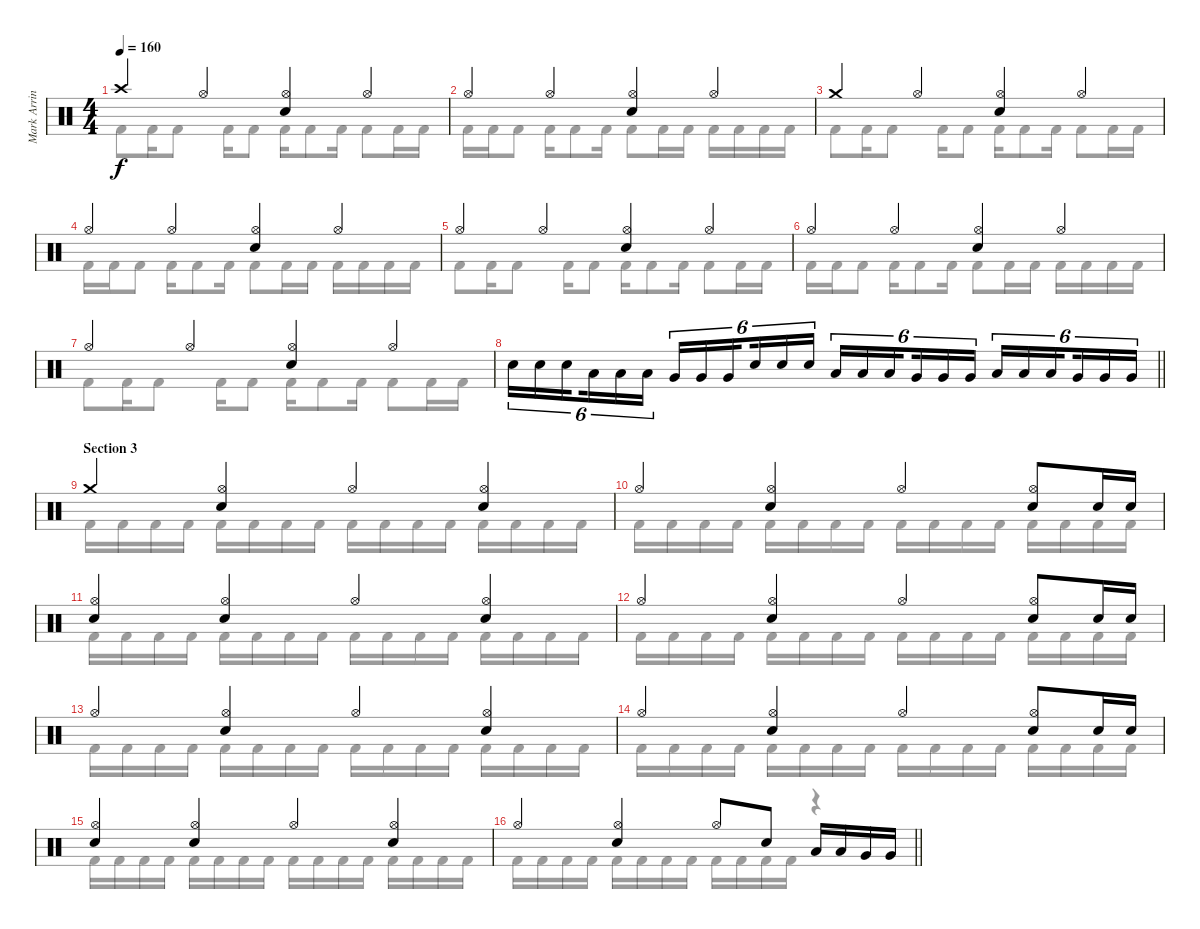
\track ("Mark Arrington – drums" "Mark Arrin") {instrument percussion}
\staff {score}
\articulation defaults
\voice
\ts (4 4)
\tempo 160
\clef neutral
\ks c "Crash high (hit)".4{dy f} "Hi-Hat (open)".4
("Hi-Hat (open)" "Electric Snare (hit)").4 "Hi-Hat (open)".4 |
"Hi-Hat (open)".4 "Hi-Hat (open)".4 ("Hi-Hat (open)" "Electric Snare (hit)").4 "Hi-Hat (open)".4 |
"Crash medium (hit)".4 "Hi-Hat (open)".4 ("Hi-Hat (open)" "Electric Snare (hit)").4 "Hi-Hat (open)".4 |
"Hi-Hat (open)".4 "Hi-Hat (open)".4 ("Hi-Hat (open)" "Electric Snare (hit)").4 "Hi-Hat (open)".4 |
"Hi-Hat (open)".4 "Hi-Hat (open)".4 ("Hi-Hat (open)" "Electric Snare (hit)").4 "Hi-Hat (open)".4 |
"Hi-Hat (open)".4 "Hi-Hat (open)".4 ("Hi-Hat (open)" "Electric Snare (hit)").4 "Hi-Hat (open)".4 |
"Hi-Hat (open)".4 "Hi-Hat (open)".4 ("Hi-Hat (open)" "Electric Snare (hit)").4 "Hi-Hat (open)".4 |
\barLineRight lightlight "Electric Snare (hit)".16{tu (6 4)} "Electric Snare (hit)".16{tu (6 4)} "Electric Snare (hit)".16{tu (6 4) beam splitsecondary} "Low Tom (hit)".16{tu (6 4)} "Low Tom (hit)".16{tu (6 4)} "Low Tom (hit)".16{tu (6 4)} "Very Low Tom (hit)".16{tu (6 4)} "Very Low Tom (hit)".16{tu (6 4)} "Very Low Tom (hit)".16{tu (6 4) beam splitsecondary} "Electric Snare (hit)".16{tu (6 4)} "Electric Snare (hit)".16{tu (6 4)} "Electric Snare (hit)".16{tu (6 4)} "Low Tom (hit)".16{tu (6 4)} "Low Tom (hit)".16{tu (6 4)} "Low Tom (hit)".16{tu (6 4) beam splitsecondary} "Very Low Tom (hit)".16{tu (6 4)} "Very Low Tom (hit)".16{tu (6 4)} "Very Low Tom (hit)".16{tu (6 4)} "Low Floor Tom (hit)".16{tu (6 4)} "Low Floor Tom (hit)".16{tu (6 4)} "Low Floor Tom (hit)".16{tu (6 4) beam splitsecondary} "Very Low Tom (hit)".16{tu (6 4)} "Very Low Tom (hit)".16{tu (6 4)} "Very Low Tom (hit)".16{tu (6 4)}
|
\section ("" "Section 3")
"Crash medium (hit)".4 ("Hi-Hat (open)" "Electric Snare (hit)").4 "Hi-Hat (open)".4 ("Hi-Hat (open)" "Electric Snare (hit)").4 |
"Hi-Hat (open)".4 ("Hi-Hat (open)" "Electric Snare (hit)").4 "Hi-Hat (open)".4 ("Hi-Hat (open)" "Electric Snare (hit)").8 "Electric Snare (hit)".16 "Electric Snare (hit)".16 |
("Hi-Hat (open)" "Electric Snare (hit)").4 ("Hi-Hat (open)" "Electric Snare (hit)").4 "Hi-Hat (open)".4 ("Hi-Hat (open)" "Electric Snare (hit)").4 |
"Hi-Hat (open)".4 ("Hi-Hat (open)" "Electric Snare (hit)").4 "Hi-Hat (open)".4 ("Hi-Hat (open)" "Electric Snare (hit)").8 "Electric Snare (hit)".16 "Electric Snare (hit)".16 |
"Hi-Hat (open)".4 ("Hi-Hat (open)" "Electric Snare (hit)").4 "Hi-Hat (open)".4 ("Hi-Hat (open)" "Electric Snare (hit)").4 |
"Hi-Hat (open)".4 ("Hi-Hat (open)" "Electric Snare (hit)").4 "Hi-Hat (open)".4 ("Hi-Hat (open)" "Electric Snare (hit)").8 "Electric Snare (hit)".16 "Electric Snare (hit)".16 |
("Hi-Hat (open)" "Electric Snare (hit)").4 ("Hi-Hat (open)" "Electric Snare (hit)").4 "Hi-Hat (open)".4 ("Hi-Hat (open)" "Electric Snare (hit)").4 |
\barLineRight lightlight "Hi-Hat (open)".4
("Hi-Hat (open)" "Electric Snare (hit)").4 "Hi-Hat (open)".8 "Electric Snare (hit)".8 "Low Tom (hit)".16 "Low Tom (hit)".16 "Very Low Tom (hit)".16 "Very Low Tom (hit)".16
\voice
\clef neutral
\ottava regular
\simile none
\ks c "Kick (hit) 2".8{dy f} "Kick (hit) 2".16 "Kick (hit) 2".8 "Kick (hit) 2".16 "Kick (hit) 2".8 "Kick (hit) 2".16 "Kick (hit) 2".8 "Kick (hit) 2".16 "Kick (hit) 2".8 "Kick (hit) 2".16 "Kick (hit) 2".16
|
"Kick (hit) 2".16 "Kick (hit) 2".16 "Kick (hit) 2".8 "Kick (hit) 2".16 "Kick (hit) 2".8 "Kick (hit) 2".16 "Kick (hit) 2".8 "Kick (hit) 2".16 "Kick (hit) 2".16 "Kick (hit) 2".16 "Kick (hit) 2".16 "Kick (hit) 2".16 "Kick (hit) 2".16 |
"Kick (hit) 2".8 "Kick (hit) 2".16 "Kick (hit) 2".8 "Kick (hit) 2".16 "Kick (hit) 2".8 "Kick (hit) 2".16 "Kick (hit) 2".8 "Kick (hit) 2".16 "Kick (hit) 2".8 "Kick (hit) 2".16 "Kick (hit) 2".16 |
"Kick (hit) 2".16 "Kick (hit) 2".16 "Kick (hit) 2".8 "Kick (hit) 2".16 "Kick (hit) 2".8 "Kick (hit) 2".16 "Kick (hit) 2".8 "Kick (hit) 2".16 "Kick (hit) 2".16 "Kick (hit) 2".16 "Kick (hit) 2".16 "Kick (hit) 2".16 "Kick (hit) 2".16 |
"Kick (hit) 2".8 "Kick (hit) 2".16 "Kick (hit) 2".8 "Kick (hit) 2".16 "Kick (hit) 2".8 "Kick (hit) 2".16 "Kick (hit) 2".8 "Kick (hit) 2".16 "Kick (hit) 2".8 "Kick (hit) 2".16 "Kick (hit) 2".16 |
"Kick (hit) 2".16 "Kick (hit) 2".16 "Kick (hit) 2".8 "Kick (hit) 2".16 "Kick (hit) 2".8 "Kick (hit) 2".16 "Kick (hit) 2".8 "Kick (hit) 2".16 "Kick (hit) 2".16 "Kick (hit) 2".16 "Kick (hit) 2".16 "Kick (hit) 2".16 "Kick (hit) 2".16 |
"Kick (hit) 2".8 "Kick (hit) 2".16 "Kick (hit) 2".8 "Kick (hit) 2".16 "Kick (hit) 2".8 "Kick (hit) 2".16 "Kick (hit) 2".8 "Kick (hit) 2".16 "Kick (hit) 2".8 "Kick (hit) 2".16 "Kick (hit) 2".16 |
\barLineRight lightlight
|
"Kick (hit) 2".16 "Kick (hit) 2".16 "Kick (hit) 2".16 "Kick (hit) 2".16 "Kick (hit) 2".16 "Kick (hit) 2".16 "Kick (hit) 2".16 "Kick (hit) 2".16 "Kick (hit) 2".16 "Kick (hit) 2".16 "Kick (hit) 2".16 "Kick (hit) 2".16 "Kick (hit) 2".16 "Kick (hit) 2".16 "Kick (hit) 2".16 "Kick (hit) 2".16 |
"Kick (hit) 2".16 "Kick (hit) 2".16 "Kick (hit) 2".16 "Kick (hit) 2".16 "Kick (hit) 2".16 "Kick (hit) 2".16 "Kick (hit) 2".16 "Kick (hit) 2".16 "Kick (hit) 2".16 "Kick (hit) 2".16 "Kick (hit) 2".16 "Kick (hit) 2".16 "Kick (hit) 2".16 "Kick (hit) 2".16 "Kick (hit) 2".16 "Kick (hit) 2".16 |
"Kick (hit) 2".16 "Kick (hit) 2".16 "Kick (hit) 2".16 "Kick (hit) 2".16 "Kick (hit) 2".16 "Kick (hit) 2".16 "Kick (hit) 2".16 "Kick (hit) 2".16 "Kick (hit) 2".16 "Kick (hit) 2".16 "Kick (hit) 2".16 "Kick (hit) 2".16 "Kick (hit) 2".16 "Kick (hit) 2".16 "Kick (hit) 2".16 "Kick (hit) 2".16 |
"Kick (hit) 2".16 "Kick (hit) 2".16 "Kick (hit) 2".16 "Kick (hit) 2".16 "Kick (hit) 2".16 "Kick (hit) 2".16 "Kick (hit) 2".16 "Kick (hit) 2".16 "Kick (hit) 2".16 "Kick (hit) 2".16 "Kick (hit) 2".16 "Kick (hit) 2".16 "Kick (hit) 2".16 "Kick (hit) 2".16 "Kick (hit) 2".16 "Kick (hit) 2".16 |
"Kick (hit) 2".16 "Kick (hit) 2".16 "Kick (hit) 2".16 "Kick (hit) 2".16 "Kick (hit) 2".16 "Kick (hit) 2".16 "Kick (hit) 2".16 "Kick (hit) 2".16 "Kick (hit) 2".16 "Kick (hit) 2".16 "Kick (hit) 2".16 "Kick (hit) 2".16 "Kick (hit) 2".16 "Kick (hit) 2".16 "Kick (hit) 2".16 "Kick (hit) 2".16 |
"Kick (hit) 2".16 "Kick (hit) 2".16 "Kick (hit) 2".16 "Kick (hit) 2".16 "Kick (hit) 2".16 "Kick (hit) 2".16 "Kick (hit) 2".16 "Kick (hit) 2".16 "Kick (hit) 2".16 "Kick (hit) 2".16 "Kick (hit) 2".16 "Kick (hit) 2".16 "Kick (hit) 2".16 "Kick (hit) 2".16 "Kick (hit) 2".16 "Kick (hit) 2".16 |
"Kick (hit) 2".16 "Kick (hit) 2".16 "Kick (hit) 2".16 "Kick (hit) 2".16 "Kick (hit) 2".16 "Kick (hit) 2".16 "Kick (hit) 2".16 "Kick (hit) 2".16 "Kick (hit) 2".16 "Kick (hit) 2".16 "Kick (hit) 2".16 "Kick (hit) 2".16 "Kick (hit) 2".16 "Kick (hit) 2".16 "Kick (hit) 2".16 "Kick (hit) 2".16 |
\barLineRight lightlight "Kick (hit) 2".16 "Kick (hit) 2".16 "Kick (hit) 2".16 "Kick (hit) 2".16 "Kick (hit) 2".16 "Kick (hit) 2".16 "Kick (hit) 2".16 "Kick (hit) 2".16 "Kick (hit) 2".16 "Kick (hit) 2".16 "Kick (hit) 2".16 "Kick (hit) 2".16
r.4
